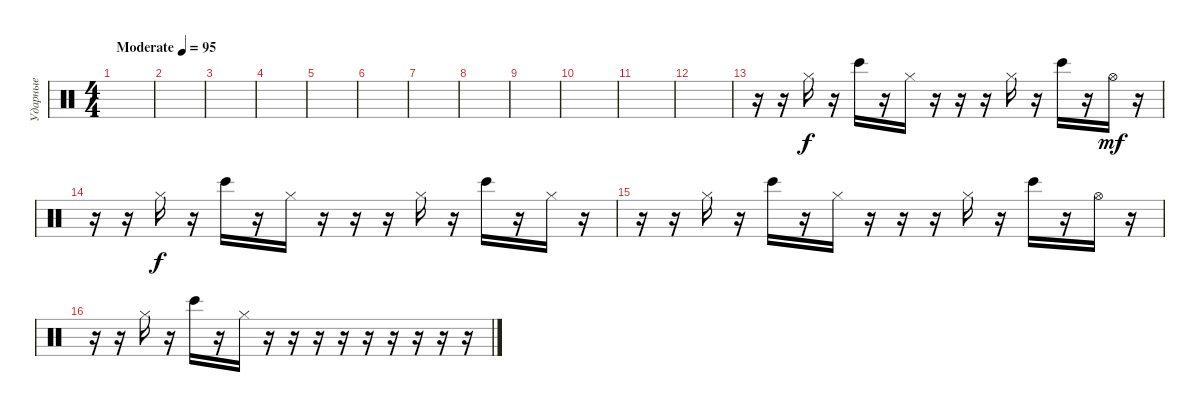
\track ("Ударные" "Ударные") {instrument percussion}
\staff {score}
\articulation defaults
\ts (4 4)
\tempo (95 "Moderate")
\clef neutral
\ks c
|
|
|
|
|
|
|
|
|
|
|
|
r.16 r.16 "Hi-Hat (closed)".16 r.16 "Bongo High (hit)".16 r.16 "Hi-Hat (closed)".16 r.16 r.16 r.16 "Hi-Hat (closed)".16 r.16 "Bongo High (hit)".16 r.16 "Hi-Hat (open)".16{dy mf} r.16 |
r.16 r.16 "Hi-Hat (closed)".16{dy f} r.16 "Bongo High (hit)".16 r.16 "Hi-Hat (closed)".16 r.16 r.16 r.16 "Hi-Hat (closed)".16 r.16 "Bongo High (hit)".16 r.16 "Hi-Hat (closed)".16 r.16 |
r.16 r.16 "Hi-Hat (closed)".16 r.16 "Bongo High (hit)".16 r.16 "Hi-Hat (closed)".16 r.16 r.16 r.16 "Hi-Hat (closed)".16 r.16 "Bongo High (hit)".16 r.16 "Hi-Hat (open)".16 r.16 |
r.16 r.16 "Hi-Hat (closed)".16 r.16 "Bongo High (hit)".16 r.16 "Hi-Hat (closed)".16 r.16 r.16 r.16 r.16 r.16 r.16 r.16 r.16 r.16
